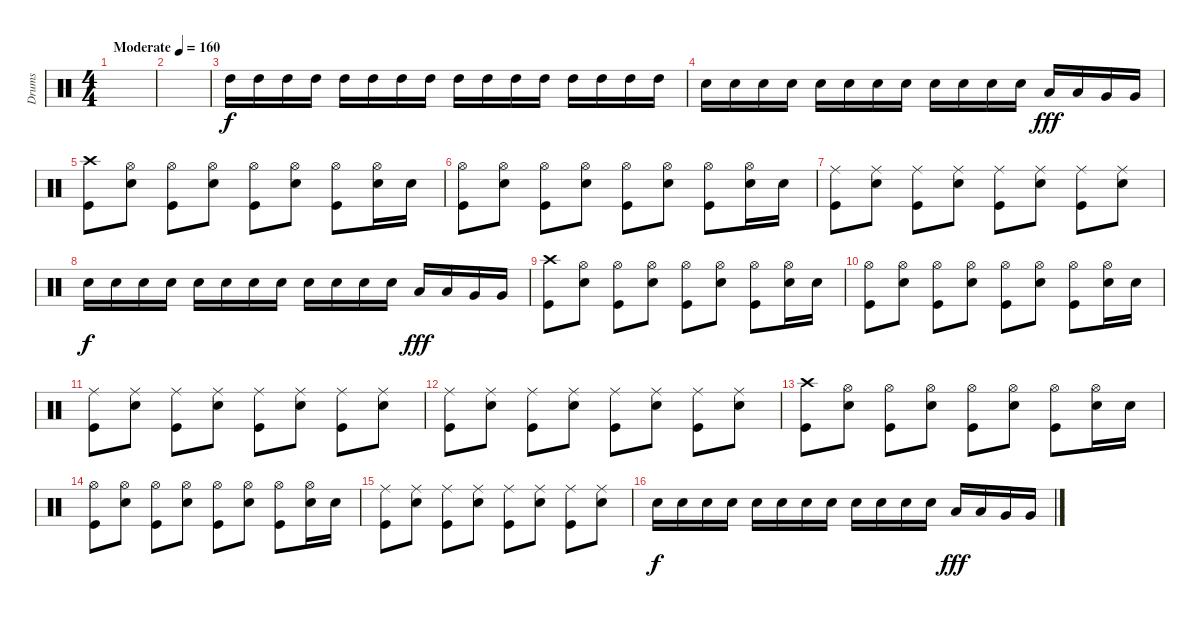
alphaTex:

\track ("Drums" "Drums") {instrument percussion}
\staff {score}
\articulation defaults
\ts (4 4)
\tempo (160 "Moderate")
\clef neutral
\ks c
|
|
"High Tom (hit)".16 "High Tom (hit)".16 "High Tom (hit)".16 "High Tom (hit)".16 "High Tom (hit)".16 "High Tom (hit)".16 "High Tom (hit)".16 "High Tom (hit)".16 "High Tom (hit)".16 "High Tom (hit)".16 "High Tom (hit)".16 "High Tom (hit)".16 "High Tom (hit)".16 "High Tom (hit)".16 "High Tom (hit)".16 "High Tom (hit)".16 |
"Electric Snare (hit)".16 "Electric Snare (hit)".16 "Electric Snare (hit)".16 "Electric Snare (hit)".16 "Electric Snare (hit)".16 "Electric Snare (hit)".16 "Electric Snare (hit)".16 "Electric Snare (hit)".16 "Electric Snare (hit)".16 "Electric Snare (hit)".16 "Electric Snare (hit)".16 "Electric Snare (hit)".16 "Low Tom (hit)".16{dy fff} "Low Tom (hit)".16 "Very Low Tom (hit)".16 "Very Low Tom (hit)".16 |
("Crash high (hit)" "Kick (hit)").8 ("Hi-Hat (open)" "Electric Snare (hit)").8 ("Hi-Hat (open)" "Kick (hit)").8 ("Hi-Hat (open)" "Electric Snare (hit)").8 ("Hi-Hat (open)" "Kick (hit)").8 ("Hi-Hat (open)" "Electric Snare (hit)").8 ("Hi-Hat (open)" "Kick (hit)").8 ("Hi-Hat (open)" "Electric Snare (hit)").16 "Electric Snare (hit)".16 |
("Hi-Hat (open)" "Kick (hit)").8 ("Hi-Hat (open)" "Electric Snare (hit)").8 ("Hi-Hat (open)" "Kick (hit)").8 ("Hi-Hat (open)" "Electric Snare (hit)").8 ("Hi-Hat (open)" "Kick (hit)").8 ("Hi-Hat (open)" "Electric Snare (hit)").8 ("Hi-Hat (open)" "Kick (hit)").8 ("Hi-Hat (open)" "Electric Snare (hit)").16 "Electric Snare (hit)".16 |
("Ride (middle)" "Kick (hit)").8 ("Ride (middle)" "Electric Snare (hit)").8 ("Ride (middle)" "Kick (hit)").8 ("Ride (middle)" "Electric Snare (hit)").8 ("Ride (middle)" "Kick (hit)").8 ("Ride (middle)" "Electric Snare (hit)").8 ("Ride (middle)" "Kick (hit)").8 ("Ride (middle)" "Electric Snare (hit)").8 |
"Electric Snare (hit)".16{dy f} "Electric Snare (hit)".16 "Electric Snare (hit)".16 "Electric Snare (hit)".16 "Electric Snare (hit)".16 "Electric Snare (hit)".16 "Electric Snare (hit)".16 "Electric Snare (hit)".16 "Electric Snare (hit)".16 "Electric Snare (hit)".16 "Electric Snare (hit)".16 "Electric Snare (hit)".16 "Low Tom (hit)".16{dy fff} "Low Tom (hit)".16 "Very Low Tom (hit)".16 "Very Low Tom (hit)".16 |
("Crash high (hit)" "Kick (hit)").8 ("Hi-Hat (open)" "Electric Snare (hit)").8 ("Hi-Hat (open)" "Kick (hit)").8 ("Hi-Hat (open)" "Electric Snare (hit)").8 ("Hi-Hat (open)" "Kick (hit)").8 ("Hi-Hat (open)" "Electric Snare (hit)").8 ("Hi-Hat (open)" "Kick (hit)").8 ("Hi-Hat (open)" "Electric Snare (hit)").16 "Electric Snare (hit)".16 |
("Hi-Hat (open)" "Kick (hit)").8 ("Hi-Hat (open)" "Electric Snare (hit)").8 ("Hi-Hat (open)" "Kick (hit)").8 ("Hi-Hat (open)" "Electric Snare (hit)").8 ("Hi-Hat (open)" "Kick (hit)").8 ("Hi-Hat (open)" "Electric Snare (hit)").8 ("Hi-Hat (open)" "Kick (hit)").8 ("Hi-Hat (open)" "Electric Snare (hit)").16 "Electric Snare (hit)".16 |
("Ride (middle)" "Kick (hit)").8 ("Ride (middle)" "Electric Snare (hit)").8 ("Ride (middle)" "Kick (hit)").8 ("Ride (middle)" "Electric Snare (hit)").8 ("Ride (middle)" "Kick (hit)").8 ("Ride (middle)" "Electric Snare (hit)").8 ("Ride (middle)" "Kick (hit)").8 ("Ride (middle)" "Electric Snare (hit)").8 |
("Ride (middle)" "Kick (hit)").8 ("Ride (middle)" "Electric Snare (hit)").8 ("Ride (middle)" "Kick (hit)").8 ("Ride (middle)" "Electric Snare (hit)").8 ("Ride (middle)" "Kick (hit)").8 ("Ride (middle)" "Electric Snare (hit)").8 ("Ride (middle)" "Kick (hit)").8 ("Ride (middle)" "Electric Snare (hit)").8 |
("Crash high (hit)" "Kick (hit)").8 ("Hi-Hat (open)" "Electric Snare (hit)").8 ("Hi-Hat (open)" "Kick (hit)").8 ("Hi-Hat (open)" "Electric Snare (hit)").8 ("Hi-Hat (open)" "Kick (hit)").8 ("Hi-Hat (open)" "Electric Snare (hit)").8 ("Hi-Hat (open)" "Kick (hit)").8 ("Hi-Hat (open)" "Electric Snare (hit)").16 "Electric Snare (hit)".16 |
("Hi-Hat (open)" "Kick (hit)").8 ("Hi-Hat (open)" "Electric Snare (hit)").8 ("Hi-Hat (open)" "Kick (hit)").8 ("Hi-Hat (open)" "Electric Snare (hit)").8 ("Hi-Hat (open)" "Kick (hit)").8 ("Hi-Hat (open)" "Electric Snare (hit)").8 ("Hi-Hat (open)" "Kick (hit)").8 ("Hi-Hat (open)" "Electric Snare (hit)").16 "Electric Snare (hit)".16 |
("Ride (middle)" "Kick (hit)").8 ("Ride (middle)" "Electric Snare (hit)").8 ("Ride (middle)" "Kick (hit)").8 ("Ride (middle)" "Electric Snare (hit)").8 ("Ride (middle)" "Kick (hit)").8 ("Ride (middle)" "Electric Snare (hit)").8 ("Ride (middle)" "Kick (hit)").8 ("Ride (middle)" "Electric Snare (hit)").8 |
"Electric Snare (hit)".16{dy f} "Electric Snare (hit)".16 "Electric Snare (hit)".16 "Electric Snare (hit)".16 "Electric Snare (hit)".16 "Electric Snare (hit)".16 "Electric Snare (hit)".16 "Electric Snare (hit)".16 "Electric Snare (hit)".16 "Electric Snare (hit)".16 "Electric Snare (hit)".16 "Electric Snare (hit)".16 "Low Tom (hit)".16{dy fff} "Low Tom (hit)".16 "Very Low Tom (hit)".16 "Very Low Tom (hit)".16
